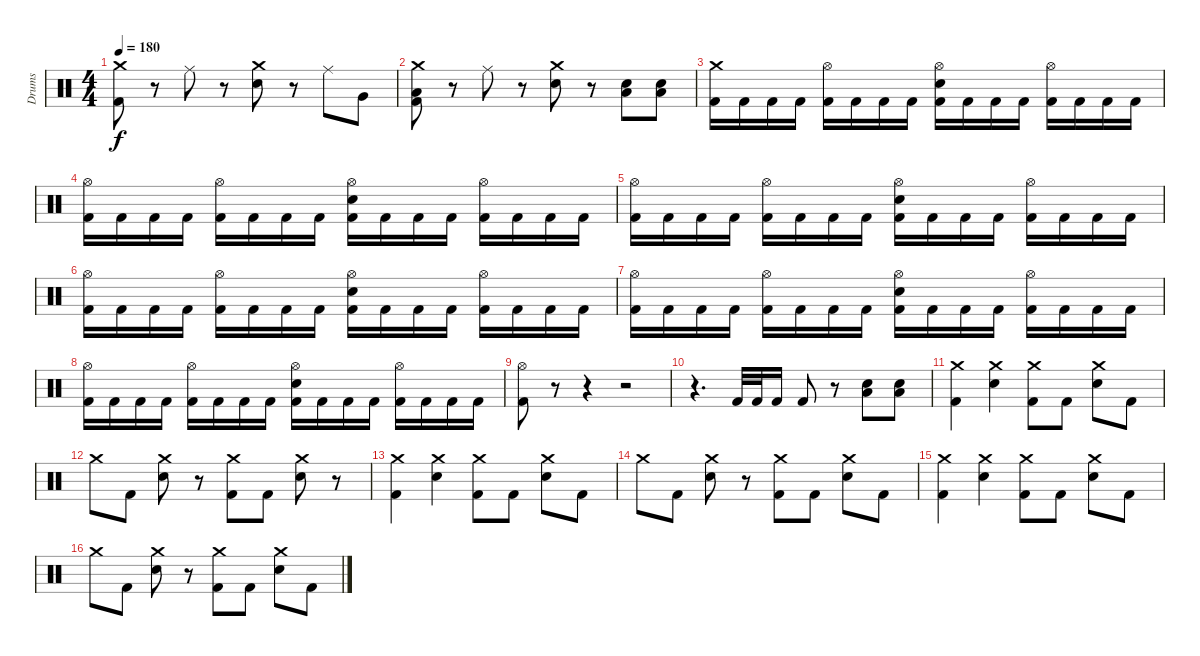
\track ("Drums" "Drums") {instrument percussion}
\staff {score}
\articulation defaults
\ts (4 4)
\tempo 180
\clef neutral
\ks c
("Crash medium (hit)" "Kick (hit) 2").8{dy f} r.8 "Ride (middle)".8 r.8 ("Crash medium (hit)" "Electric Snare (hit)").8 r.8 "Ride (middle)".8 "Very Low Tom (hit)".8 |
("Crash medium (hit)" "Low Tom (hit)" "Kick (hit) 2").8 r.8 "Ride (middle)".8 r.8 ("Crash medium (hit)" "Electric Snare (hit)").8 r.8 ("Low Floor Tom (hit)" "Electric Snare (hit)").8{bd 60} ("Low Floor Tom (hit)" "Electric Snare (hit)").8{bd 60} |
("Crash medium (hit)" "Kick (hit) 2").16 "Kick (hit) 2".16 "Kick (hit) 2".16 "Kick (hit) 2".16 ("Hi-Hat (open)" "Kick (hit) 2").16 "Kick (hit) 2".16 "Kick (hit) 2".16 "Kick (hit) 2".16 ("Hi-Hat (open)" "Electric Snare (hit)" "Kick (hit) 2").16 "Kick (hit) 2".16 "Kick (hit) 2".16 "Kick (hit) 2".16 ("Hi-Hat (open)" "Kick (hit) 2").16 "Kick (hit) 2".16 "Kick (hit) 2".16 "Kick (hit) 2".16 |
("Hi-Hat (open)" "Kick (hit) 2").16 "Kick (hit) 2".16 "Kick (hit) 2".16 "Kick (hit) 2".16 ("Hi-Hat (open)" "Kick (hit) 2").16 "Kick (hit) 2".16 "Kick (hit) 2".16 "Kick (hit) 2".16 ("Hi-Hat (open)" "Electric Snare (hit)" "Kick (hit) 2").16 "Kick (hit) 2".16 "Kick (hit) 2".16 "Kick (hit) 2".16 ("Hi-Hat (open)" "Kick (hit) 2").16 "Kick (hit) 2".16 "Kick (hit) 2".16 "Kick (hit) 2".16 |
("Hi-Hat (open)" "Kick (hit) 2").16 "Kick (hit) 2".16 "Kick (hit) 2".16 "Kick (hit) 2".16 ("Hi-Hat (open)" "Kick (hit) 2").16 "Kick (hit) 2".16 "Kick (hit) 2".16 "Kick (hit) 2".16 ("Hi-Hat (open)" "Electric Snare (hit)" "Kick (hit) 2").16 "Kick (hit) 2".16 "Kick (hit) 2".16 "Kick (hit) 2".16 ("Hi-Hat (open)" "Kick (hit) 2").16 "Kick (hit) 2".16 "Kick (hit) 2".16 "Kick (hit) 2".16 |
("Hi-Hat (open)" "Kick (hit) 2").16 "Kick (hit) 2".16 "Kick (hit) 2".16 "Kick (hit) 2".16 ("Hi-Hat (open)" "Kick (hit) 2").16 "Kick (hit) 2".16 "Kick (hit) 2".16 "Kick (hit) 2".16 ("Hi-Hat (open)" "Electric Snare (hit)" "Kick (hit) 2").16 "Kick (hit) 2".16 "Kick (hit) 2".16 "Kick (hit) 2".16 ("Hi-Hat (open)" "Kick (hit) 2").16 "Kick (hit) 2".16 "Kick (hit) 2".16 "Kick (hit) 2".16 |
("Hi-Hat (open)" "Kick (hit) 2").16 "Kick (hit) 2".16 "Kick (hit) 2".16 "Kick (hit) 2".16 ("Hi-Hat (open)" "Kick (hit) 2").16 "Kick (hit) 2".16 "Kick (hit) 2".16 "Kick (hit) 2".16 ("Hi-Hat (open)" "Electric Snare (hit)" "Kick (hit) 2").16 "Kick (hit) 2".16 "Kick (hit) 2".16 "Kick (hit) 2".16 ("Hi-Hat (open)" "Kick (hit) 2").16 "Kick (hit) 2".16 "Kick (hit) 2".16 "Kick (hit) 2".16 |
("Hi-Hat (open)" "Kick (hit) 2").16 "Kick (hit) 2".16 "Kick (hit) 2".16 "Kick (hit) 2".16 ("Hi-Hat (open)" "Kick (hit) 2").16 "Kick (hit) 2".16 "Kick (hit) 2".16 "Kick (hit) 2".16 ("Hi-Hat (open)" "Electric Snare (hit)" "Kick (hit) 2").16 "Kick (hit) 2".16 "Kick (hit) 2".16 "Kick (hit) 2".16 ("Hi-Hat (open)" "Kick (hit) 2").16 "Kick (hit) 2".16 "Kick (hit) 2".16 "Kick (hit) 2".16 |
("Hi-Hat (open)" "Kick (hit) 2").8 r.8 r.4 r.2 |
r.4{d} "Kick (hit) 2".32 "Kick (hit) 2".32 "Kick (hit) 2".16 "Kick (hit) 2".8 r.8 ("Low Floor Tom (hit)" "Electric Snare (hit)").8{bd 60} ("Low Floor Tom (hit)" "Electric Snare (hit)").8{bd 60} |
("Crash medium (hit)" "Kick (hit) 2").4 ("Crash medium (hit)" "Electric Snare (hit)").4 ("Crash medium (hit)" "Kick (hit) 2").8 "Kick (hit) 2".8 ("Crash medium (hit)" "Electric Snare (hit)").8 "Kick (hit) 2".8 |
"Crash medium (hit)".8 "Kick (hit) 2".8 ("Crash medium (hit)" "Electric Snare (hit)").8 r.8 ("Crash medium (hit)" "Kick (hit) 2").8 "Kick (hit) 2".8 ("Crash medium (hit)" "Electric Snare (hit)").8 r.8 |
("Crash medium (hit)" "Kick (hit) 2").4 ("Crash medium (hit)" "Electric Snare (hit)").4 ("Crash medium (hit)" "Kick (hit) 2").8 "Kick (hit) 2".8 ("Crash medium (hit)" "Electric Snare (hit)").8 "Kick (hit) 2".8 |
"Crash medium (hit)".8 "Kick (hit) 2".8 ("Crash medium (hit)" "Electric Snare (hit)").8 r.8 ("Crash medium (hit)" "Kick (hit) 2").8 "Kick (hit) 2".8 ("Crash medium (hit)" "Electric Snare (hit)").8 "Kick (hit) 2".8 |
("Crash medium (hit)" "Kick (hit) 2").4 ("Crash medium (hit)" "Electric Snare (hit)").4 ("Crash medium (hit)" "Kick (hit) 2").8 "Kick (hit) 2".8 ("Crash medium (hit)" "Electric Snare (hit)").8 "Kick (hit) 2".8 |
"Crash medium (hit)".8 "Kick (hit) 2".8 ("Crash medium (hit)" "Electric Snare (hit)").8 r.8 ("Crash medium (hit)" "Kick (hit) 2").8 "Kick (hit) 2".8 ("Crash medium (hit)" "Electric Snare (hit)").8 "Kick (hit) 2".8
